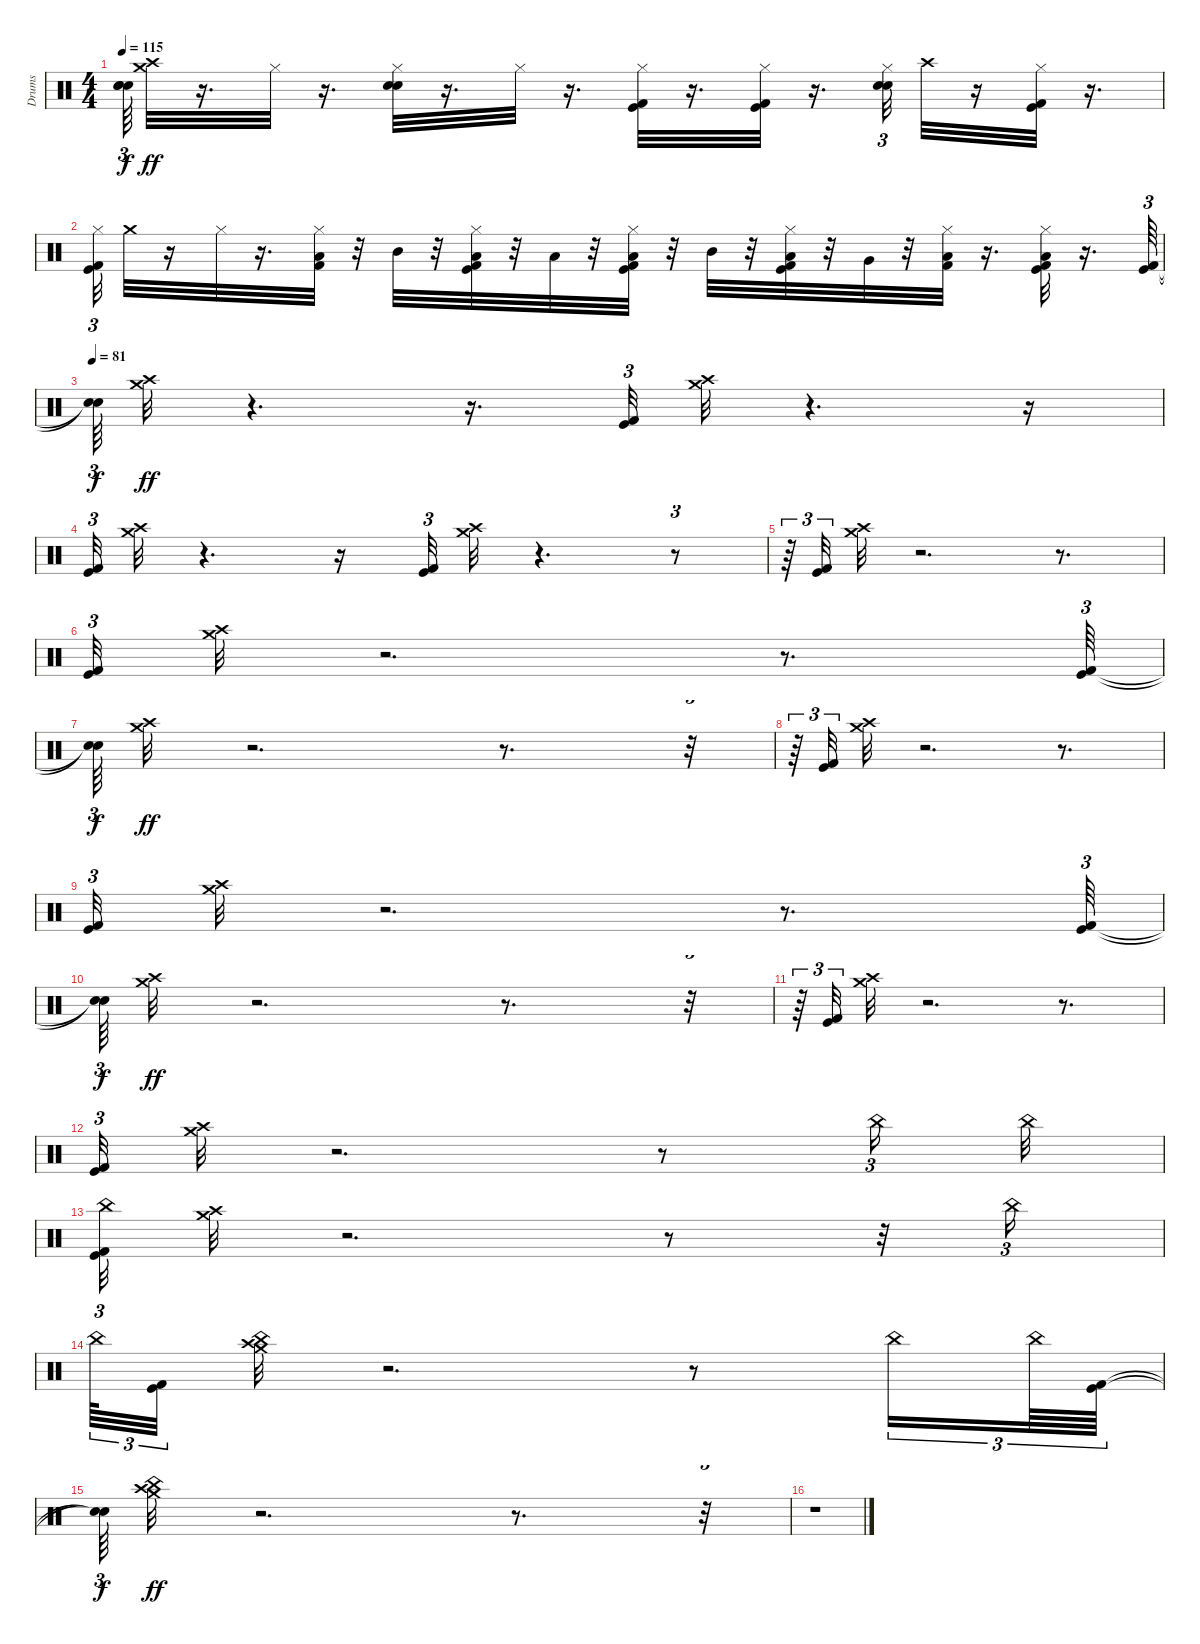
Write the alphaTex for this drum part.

\track ("Drums" "Drums") {instrument percussion}
\staff {score}
\articulation defaults
\ts (4 4)
\tempo 115
\clef neutral
\ks c
("Snare (hit)"{t} "Snare (hit)"{t} "Snare (hit)"{t}).64{tu (3 2) dy f} ("Crash high (hit)" "Crash medium (hit)").32{dy ff} r.16{d} "Hi-Hat (closed)".32 r.16{d} ("Snare (hit) 2" "Electric Snare (hit)" "Hi-Hat (closed)").32 r.16{d} "Hi-Hat (closed)".32 r.16{d} ("Hi-Hat (closed)" "Kick (hit)" "Kick (hit) 2").32 r.16{d} ("Hi-Hat (closed)" "Kick (hit)" "Kick (hit) 2").32 r.16{d} ("Snare (hit) 2" "Hi-Hat (closed)" "Electric Snare (hit)").32{tu (3 2)} "Crash high (hit)".32 r.16 ("Kick (hit)" "Hi-Hat (closed)" "Kick (hit) 2").32 r.16{d} |
("Kick (hit)" "Kick (hit) 2" "Hi-Hat (closed)").32{tu (3 2)} "Crash medium (hit)".32 r.16 "Hi-Hat (closed)".32 r.16{d} ("Low Floor Tom (hit)" "Hi-Hat (closed)" "Kick (hit) 2").32 r.32 "Mid Tom (hit)".32 r.32 ("Kick (hit) 2" "Kick (hit)" "Hi-Hat (closed)" "Low Floor Tom (hit)").32 r.32 "Low Tom (hit)".32 r.32 ("Kick (hit) 2" "Low Floor Tom (hit)" "Kick (hit)" "Hi-Hat (closed)").32 r.32 "Mid Tom (hit)".32 r.32 ("Hi-Hat (closed)" "Kick (hit) 2" "Low Floor Tom (hit)" "Kick (hit)").32 r.32 "Very Low Tom (hit)".32 r.32 ("Kick (hit) 2" "Hi-Hat (closed)" "Low Floor Tom (hit)").32 r.16{d} ("Kick (hit)" "Kick (hit) 2" "Hi-Hat (closed)" "Low Floor Tom (hit)").32 r.16{d} ("Kick (hit) 2" "Kick (hit)").64{tu (3 2)} |
\tempo 81
("Snare (hit)"{t} "Snare (hit)"{t}).64{tu (3 2) dy f} ("Crash medium (hit)" "Crash high (hit)").32{dy ff} r.4{d} r.16{d} ("Kick (hit)" "Kick (hit) 2").32{tu (3 2)} ("Crash high (hit)" "Crash medium (hit)").32 r.4{d} r.16 |
("Kick (hit)" "Kick (hit) 2").32{tu (3 2)} ("Crash medium (hit)" "Crash high (hit)").32 r.4{d} r.16 ("Kick (hit) 2" "Kick (hit)").32{tu (3 2)} ("Crash high (hit)" "Crash medium (hit)").32 r.4{d} r.8{tu (3 2)} |
r.64{tu (3 2)} ("Kick (hit) 2" "Kick (hit)").32{tu (3 2)} ("Crash medium (hit)" "Crash high (hit)").32 r.2{d} r.8{d} |
("Kick (hit) 2" "Kick (hit)").32{tu (3 2)} ("Crash medium (hit)" "Crash high (hit)").32 r.2{d} r.8{d} ("Kick (hit) 2" "Kick (hit)").64{tu (3 2)} |
("Snare (hit)"{t} "Snare (hit)"{t}).64{tu (3 2) dy f} ("Crash medium (hit)" "Crash high (hit)").32{dy ff} r.2{d} r.8{d} r.32{tu (3 2)} |
r.64{tu (3 2)} ("Kick (hit)" "Kick (hit) 2").32{tu (3 2)} ("Crash high (hit)" "Crash medium (hit)").32 r.2{d} r.8{d} |
("Kick (hit)" "Kick (hit) 2").32{tu (3 2)} ("Crash medium (hit)" "Crash high (hit)").32 r.2{d} r.8{d} ("Kick (hit) 2" "Kick (hit)").64{tu (3 2)} |
("Snare (hit)"{t} "Snare (hit)"{t}).64{tu (3 2) dy f} ("Crash medium (hit)" "Crash high (hit)").32{dy ff} r.2{d} r.8{d} r.32{tu (3 2)} |
r.64{tu (3 2)} ("Kick (hit)" "Kick (hit) 2").32{tu (3 2)} ("Crash high (hit)" "Crash medium (hit)").32 r.2{d} r.8{d} |
("Kick (hit) 2" "Kick (hit)").32{tu (3 2)} ("Crash medium (hit)" "Crash high (hit)").32 r.2{d} r.8 "China (hit)".16{tu (3 2)} "China (hit)".32 |
("Kick (hit)" "China (hit)" "Kick (hit) 2").32{tu (3 2)} ("Crash high (hit)" "Crash medium (hit)").32 r.2{d} r.8 r.32 "China (hit)".16{tu (3 2)} |
"China (hit)".64{tu (3 2)} ("Kick (hit)" "Kick (hit) 2").32{tu (3 2)} ("China (hit)" "Crash medium (hit)" "Crash high (hit)").32 r.2{d} r.8 "China (hit)".16{tu (3 2)} "China (hit)".64{tu (3 2)} ("Kick (hit)" "Kick (hit) 2").64{tu (3 2)} |
("Snare (hit)"{t} "Snare (hit)"{t}).64{tu (3 2) dy f} ("China (hit)" "Crash high (hit)" "Crash medium (hit)").32{dy ff} r.2{d} r.8{d} r.32{tu (3 2)} |
r.1
